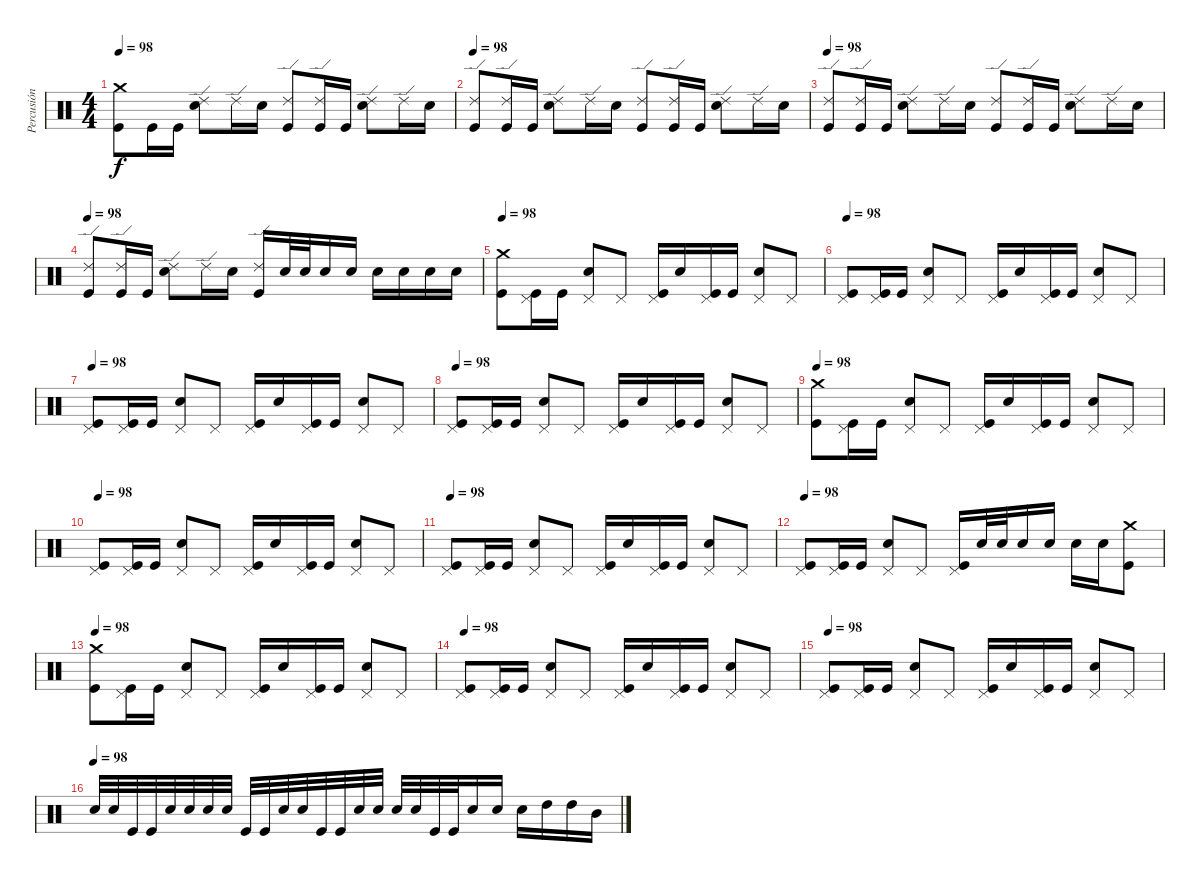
\track ("Percusión" "Percusión") {instrument percussion}
\staff {score}
\articulation defaults
\ts (4 4)
\tempo 98
\clef neutral
\ks c
("Crash medium (hit)" "Kick (hit)").8{dy f} "Kick (hit)".16 "Kick (hit)".16 ("Ride (edge) 2" "Electric Snare (hit)").8 "Ride (edge) 2".16 "Electric Snare (hit)".16 ("Ride (edge) 2" "Kick (hit)").8 ("Ride (edge) 2" "Kick (hit)").16 "Kick (hit)".16 ("Ride (edge) 2" "Electric Snare (hit)").8 "Ride (edge) 2".16 "Electric Snare (hit)".16 |
\tempo 98
("Ride (edge) 2" "Kick (hit)").8 ("Ride (edge) 2" "Kick (hit)").16 "Kick (hit)".16 ("Ride (edge) 2" "Electric Snare (hit)").8 "Ride (edge) 2".16 "Electric Snare (hit)".16 ("Ride (edge) 2" "Kick (hit)").8 ("Ride (edge) 2" "Kick (hit)").16 "Kick (hit)".16 ("Ride (edge) 2" "Electric Snare (hit)").8 "Ride (edge) 2".16 "Electric Snare (hit)".16 |
\tempo 98
("Ride (edge) 2" "Kick (hit)").8 ("Ride (edge) 2" "Kick (hit)").16 "Kick (hit)".16 ("Ride (edge) 2" "Electric Snare (hit)").8 "Ride (edge) 2".16 "Electric Snare (hit)".16 ("Ride (edge) 2" "Kick (hit)").8 ("Ride (edge) 2" "Kick (hit)").16 "Kick (hit)".16 ("Ride (edge) 2" "Electric Snare (hit)").8 "Ride (edge) 2".16 "Electric Snare (hit)".16 |
\tempo 98
("Ride (edge) 2" "Kick (hit)").8 ("Ride (edge) 2" "Kick (hit)").16 "Kick (hit)".16 ("Ride (edge) 2" "Electric Snare (hit)").8 "Ride (edge) 2".16 "Electric Snare (hit)".16 ("Ride (edge) 2" "Kick (hit)").16 "Electric Snare (hit)".32 "Electric Snare (hit)".32 "Electric Snare (hit)".16 "Electric Snare (hit)".16 "Electric Snare (hit)".16 "Electric Snare (hit)".16 "Electric Snare (hit)".16 "Electric Snare (hit)".16 |
\tempo 98
("Crash medium (hit)" "Kick (hit)").8 ("Pedal Hi-Hat (hit)" "Kick (hit)").16 "Kick (hit)".16 ("Pedal Hi-Hat (hit)" "Electric Snare (hit)").8 "Pedal Hi-Hat (hit)".8 ("Pedal Hi-Hat (hit)" "Kick (hit)").16 "Electric Snare (hit)".16 ("Pedal Hi-Hat (hit)" "Kick (hit)").16 "Kick (hit)".16 ("Pedal Hi-Hat (hit)" "Electric Snare (hit)").8 "Pedal Hi-Hat (hit)".8 |
\tempo 98
("Pedal Hi-Hat (hit)" "Kick (hit)").8 ("Pedal Hi-Hat (hit)" "Kick (hit)").16 "Kick (hit)".16 ("Pedal Hi-Hat (hit)" "Electric Snare (hit)").8 "Pedal Hi-Hat (hit)".8 ("Pedal Hi-Hat (hit)" "Kick (hit)").16 "Electric Snare (hit)".16 ("Pedal Hi-Hat (hit)" "Kick (hit)").16 "Kick (hit)".16 ("Pedal Hi-Hat (hit)" "Electric Snare (hit)").8 "Pedal Hi-Hat (hit)".8 |
\tempo 98
("Pedal Hi-Hat (hit)" "Kick (hit)").8 ("Pedal Hi-Hat (hit)" "Kick (hit)").16 "Kick (hit)".16 ("Pedal Hi-Hat (hit)" "Electric Snare (hit)").8 "Pedal Hi-Hat (hit)".8 ("Pedal Hi-Hat (hit)" "Kick (hit)").16 "Electric Snare (hit)".16 ("Pedal Hi-Hat (hit)" "Kick (hit)").16 "Kick (hit)".16 ("Pedal Hi-Hat (hit)" "Electric Snare (hit)").8 "Pedal Hi-Hat (hit)".8 |
\tempo 98
("Pedal Hi-Hat (hit)" "Kick (hit)").8 ("Pedal Hi-Hat (hit)" "Kick (hit)").16 "Kick (hit)".16 ("Pedal Hi-Hat (hit)" "Electric Snare (hit)").8 "Pedal Hi-Hat (hit)".8 ("Pedal Hi-Hat (hit)" "Kick (hit)").16 "Electric Snare (hit)".16 ("Pedal Hi-Hat (hit)" "Kick (hit)").16 "Kick (hit)".16 ("Pedal Hi-Hat (hit)" "Electric Snare (hit)").8 "Pedal Hi-Hat (hit)".8 |
\tempo 98
("Crash medium (hit)" "Kick (hit)").8 ("Pedal Hi-Hat (hit)" "Kick (hit)").16 "Kick (hit)".16 ("Pedal Hi-Hat (hit)" "Electric Snare (hit)").8 "Pedal Hi-Hat (hit)".8 ("Pedal Hi-Hat (hit)" "Kick (hit)").16 "Electric Snare (hit)".16 ("Pedal Hi-Hat (hit)" "Kick (hit)").16 "Kick (hit)".16 ("Pedal Hi-Hat (hit)" "Electric Snare (hit)").8 "Pedal Hi-Hat (hit)".8 |
\tempo 98
("Pedal Hi-Hat (hit)" "Kick (hit)").8 ("Pedal Hi-Hat (hit)" "Kick (hit)").16 "Kick (hit)".16 ("Pedal Hi-Hat (hit)" "Electric Snare (hit)").8 "Pedal Hi-Hat (hit)".8 ("Pedal Hi-Hat (hit)" "Kick (hit)").16 "Electric Snare (hit)".16 ("Pedal Hi-Hat (hit)" "Kick (hit)").16 "Kick (hit)".16 ("Pedal Hi-Hat (hit)" "Electric Snare (hit)").8 "Pedal Hi-Hat (hit)".8 |
\tempo 98
("Pedal Hi-Hat (hit)" "Kick (hit)").8 ("Pedal Hi-Hat (hit)" "Kick (hit)").16 "Kick (hit)".16 ("Pedal Hi-Hat (hit)" "Electric Snare (hit)").8 "Pedal Hi-Hat (hit)".8 ("Pedal Hi-Hat (hit)" "Kick (hit)").16 "Electric Snare (hit)".16 ("Pedal Hi-Hat (hit)" "Kick (hit)").16 "Kick (hit)".16 ("Pedal Hi-Hat (hit)" "Electric Snare (hit)").8 "Pedal Hi-Hat (hit)".8 |
\tempo 98
("Pedal Hi-Hat (hit)" "Kick (hit)").8 ("Pedal Hi-Hat (hit)" "Kick (hit)").16 "Kick (hit)".16 ("Pedal Hi-Hat (hit)" "Electric Snare (hit)").8 "Pedal Hi-Hat (hit)".8 ("Pedal Hi-Hat (hit)" "Kick (hit)").16 "Electric Snare (hit)".32 "Electric Snare (hit)".32 "Electric Snare (hit)".16 "Electric Snare (hit)".16 "Electric Snare (hit)".16 "Electric Snare (hit)".16 ("Crash medium (hit)" "Kick (hit)").8 |
\tempo 98
("Crash medium (hit)" "Kick (hit)").8 ("Pedal Hi-Hat (hit)" "Kick (hit)").16 "Kick (hit)".16 ("Pedal Hi-Hat (hit)" "Electric Snare (hit)").8 "Pedal Hi-Hat (hit)".8 ("Pedal Hi-Hat (hit)" "Kick (hit)").16 "Electric Snare (hit)".16 ("Pedal Hi-Hat (hit)" "Kick (hit)").16 "Kick (hit)".16 ("Pedal Hi-Hat (hit)" "Electric Snare (hit)").8 "Pedal Hi-Hat (hit)".8 |
\tempo 98
("Pedal Hi-Hat (hit)" "Kick (hit)").8 ("Pedal Hi-Hat (hit)" "Kick (hit)").16 "Kick (hit)".16 ("Pedal Hi-Hat (hit)" "Electric Snare (hit)").8 "Pedal Hi-Hat (hit)".8 ("Pedal Hi-Hat (hit)" "Kick (hit)").16 "Electric Snare (hit)".16 ("Pedal Hi-Hat (hit)" "Kick (hit)").16 "Kick (hit)".16 ("Pedal Hi-Hat (hit)" "Electric Snare (hit)").8 "Pedal Hi-Hat (hit)".8 |
\tempo 98
("Pedal Hi-Hat (hit)" "Kick (hit)").8 ("Pedal Hi-Hat (hit)" "Kick (hit)").16 "Kick (hit)".16 ("Pedal Hi-Hat (hit)" "Electric Snare (hit)").8 "Pedal Hi-Hat (hit)".8 ("Pedal Hi-Hat (hit)" "Kick (hit)").16 "Electric Snare (hit)".16 ("Pedal Hi-Hat (hit)" "Kick (hit)").16 "Kick (hit)".16 ("Pedal Hi-Hat (hit)" "Electric Snare (hit)").8 "Pedal Hi-Hat (hit)".8 |
\tempo (98)
"Electric Snare (hit)".32 "Electric Snare (hit)".32 "Kick (hit)".32 "Kick (hit)".32 "Electric Snare (hit)".32 "Electric Snare (hit)".32 "Electric Snare (hit)".32 "Electric Snare (hit)".32 "Kick (hit)".32 "Kick (hit)".32 "Electric Snare (hit)".32 "Electric Snare (hit)".32 "Kick (hit)".32 "Kick (hit)".32 "Electric Snare (hit)".32 "Electric Snare (hit)".32 "Electric Snare (hit)".32 "Electric Snare (hit)".32 "Kick (hit)".32 "Kick (hit)".32 "Electric Snare (hit)".16 "Electric Snare (hit)".16 "Electric Snare (hit)".16 "High Tom (hit)".16 "High Tom (hit)".16 "Mid Tom (hit)".16
